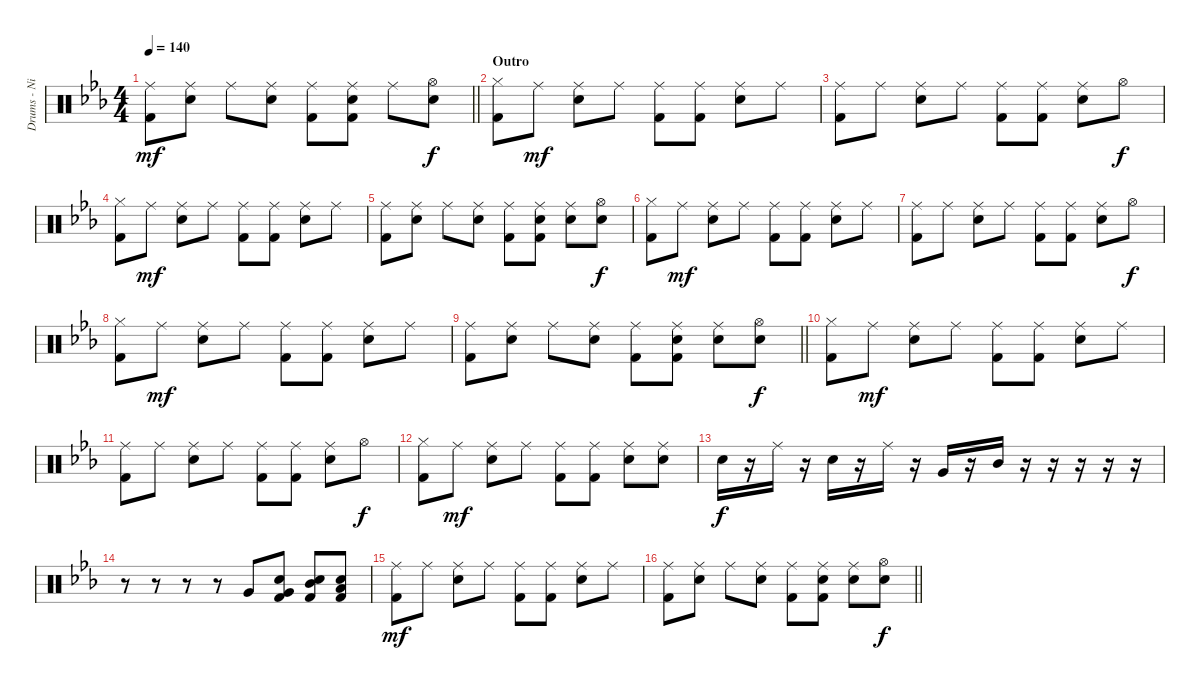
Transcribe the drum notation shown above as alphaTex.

\track ("Drums - Nigel Olsen" "Drums - Ni") {instrument percussion}
\staff {score}
\articulation defaults
\ts (4 4)
\tempo 140
\clef neutral
\barLineRight lightlight
\ks cminor
("Ride (middle)" "Kick (hit) 2").8{dy mf} ("Ride (middle)" "Snare (hit) 2").8 "Ride (middle)".8 ("Ride (middle)" "Snare (hit) 2").8 ("Ride (middle)" "Kick (hit) 2").8 ("Ride (middle)" "Snare (hit) 2" "Kick (hit) 2").8 "Ride (middle)".8 ("Hi-Hat (open)" "Snare (hit) 2").8{dy f} |
\section ("" "Outro")
("Hi-Hat (closed)" "Kick (hit) 2").8 "Ride (middle)".8{dy mf} ("Ride (middle)" "Snare (hit) 2").8 "Ride (middle)".8 ("Ride (middle)" "Kick (hit) 2").8 ("Ride (middle)" "Kick (hit) 2").8 ("Ride (middle)" "Snare (hit) 2").8 "Ride (middle)".8 |
("Ride (middle)" "Kick (hit) 2").8 "Ride (middle)".8 ("Ride (middle)" "Snare (hit) 2").8 "Ride (middle)".8 ("Ride (middle)" "Kick (hit) 2").8 ("Ride (middle)" "Kick (hit) 2").8 ("Ride (middle)" "Snare (hit) 2").8 "Hi-Hat (open)".8{dy f} |
("Hi-Hat (closed)" "Kick (hit) 2").8 "Ride (middle)".8{dy mf} ("Ride (middle)" "Snare (hit) 2").8 "Ride (middle)".8 ("Ride (middle)" "Kick (hit) 2").8 ("Ride (middle)" "Kick (hit) 2").8 ("Ride (middle)" "Snare (hit) 2").8 "Ride (middle)".8 |
("Ride (middle)" "Kick (hit) 2").8 ("Ride (middle)" "Snare (hit) 2").8 "Ride (middle)".8 ("Ride (middle)" "Snare (hit) 2").8 ("Ride (middle)" "Kick (hit) 2").8 ("Ride (middle)" "Snare (hit) 2" "Kick (hit) 2").8 ("Ride (middle)" "Snare (hit) 2").8 ("Hi-Hat (open)" "Snare (hit) 2").8{dy f} |
("Hi-Hat (closed)" "Kick (hit) 2").8 "Ride (middle)".8{dy mf} ("Ride (middle)" "Snare (hit) 2").8 "Ride (middle)".8 ("Ride (middle)" "Kick (hit) 2").8 ("Ride (middle)" "Kick (hit) 2").8 ("Ride (middle)" "Snare (hit) 2").8 "Ride (middle)".8 |
("Ride (middle)" "Kick (hit) 2").8 "Ride (middle)".8 ("Ride (middle)" "Snare (hit) 2").8 "Ride (middle)".8 ("Ride (middle)" "Kick (hit) 2").8 ("Ride (middle)" "Kick (hit) 2").8 ("Ride (middle)" "Snare (hit) 2").8 "Hi-Hat (open)".8{dy f} |
("Hi-Hat (closed)" "Kick (hit) 2").8 "Ride (middle)".8{dy mf} ("Ride (middle)" "Snare (hit) 2").8 "Ride (middle)".8 ("Ride (middle)" "Kick (hit) 2").8 ("Ride (middle)" "Kick (hit) 2").8 ("Ride (middle)" "Snare (hit) 2").8 "Ride (middle)".8 |
\barLineRight lightlight
("Ride (middle)" "Kick (hit) 2").8 ("Ride (middle)" "Snare (hit) 2").8 "Ride (middle)".8 ("Ride (middle)" "Snare (hit) 2").8 ("Ride (middle)" "Kick (hit) 2").8 ("Ride (middle)" "Snare (hit) 2" "Kick (hit) 2").8 ("Ride (middle)" "Snare (hit) 2").8 ("Hi-Hat (open)" "Snare (hit) 2").8{dy f} |
("Hi-Hat (closed)" "Kick (hit) 2").8 "Ride (middle)".8{dy mf} ("Ride (middle)" "Snare (hit) 2").8 "Ride (middle)".8 ("Ride (middle)" "Kick (hit) 2").8 ("Ride (middle)" "Kick (hit) 2").8 ("Ride (middle)" "Snare (hit) 2").8 "Ride (middle)".8 |
("Ride (middle)" "Kick (hit) 2").8 "Ride (middle)".8 ("Ride (middle)" "Snare (hit) 2").8 "Ride (middle)".8 ("Ride (middle)" "Kick (hit) 2").8 ("Ride (middle)" "Kick (hit) 2").8 ("Ride (middle)" "Snare (hit) 2").8 "Hi-Hat (open)".8{dy f} |
("Hi-Hat (closed)" "Kick (hit) 2").8 "Ride (middle)".8{dy mf} ("Ride (middle)" "Snare (hit) 2").8 "Ride (middle)".8 ("Ride (middle)" "Kick (hit) 2").8 ("Ride (middle)" "Kick (hit) 2").8 ("Ride (middle)" "Snare (hit) 2").8 ("Ride (middle)" "Snare (hit) 2").8 |
"Snare (hit) 2".16{dy f} r.16 "Ride (middle)".16 r.16 "Snare (hit) 2".16 r.16 "Ride (middle)".16 r.16 "Very Low Tom (hit)".16 r.16 "Mid Tom (hit)".16 r.16 r.16 r.16 r.16 r.16 |
r.8 r.8 r.8 r.8 "Very Low Tom (hit)".8 ("Very Low Tom (hit)" "Snare (hit) 2" "Kick (hit) 2").8 ("Mid Tom (hit)" "Snare (hit) 2" "Kick (hit) 2").8 ("Low Tom (hit)" "Snare (hit) 2" "Kick (hit) 2").8 |
("Ride (middle)" "Kick (hit) 2").8{dy mf} "Ride (middle)".8 ("Ride (middle)" "Snare (hit) 2").8 "Ride (middle)".8 ("Ride (middle)" "Kick (hit) 2").8 ("Ride (middle)" "Kick (hit) 2").8 ("Ride (middle)" "Snare (hit) 2").8 "Ride (middle)".8 |
\barLineRight lightlight
("Ride (middle)" "Kick (hit) 2").8 ("Ride (middle)" "Snare (hit) 2").8 "Ride (middle)".8 ("Ride (middle)" "Snare (hit) 2").8 ("Ride (middle)" "Kick (hit) 2").8 ("Ride (middle)" "Snare (hit) 2" "Kick (hit) 2").8 ("Ride (middle)" "Snare (hit) 2").8 ("Hi-Hat (open)" "Snare (hit) 2").8{dy f}
